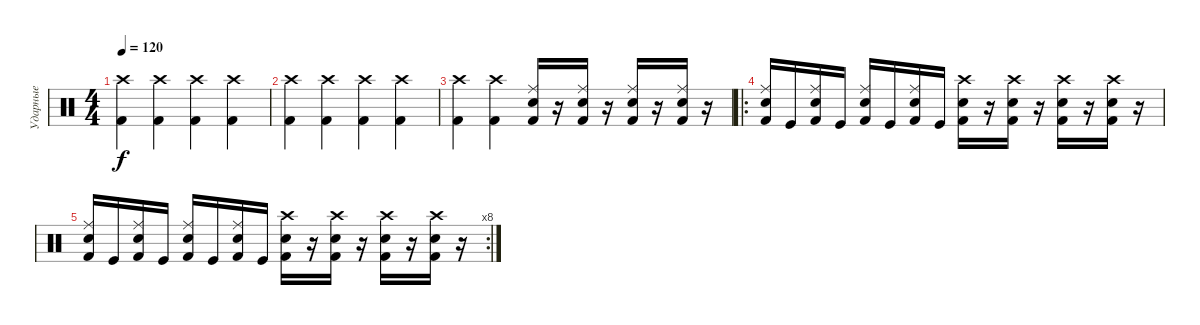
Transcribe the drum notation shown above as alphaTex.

\track ("Ударные" "Ударные") {instrument percussion}
\staff {score}
\articulation defaults
\ts (4 4)
\tempo 120
\clef neutral
\ks c
("Crash high (hit)" "Kick (hit) 2").4{dy f} ("Crash high (hit)" "Kick (hit) 2").4 ("Crash high (hit)" "Kick (hit) 2").4 ("Crash high (hit)" "Kick (hit) 2").4 |
("Crash high (hit)" "Kick (hit) 2").4 ("Crash high (hit)" "Kick (hit) 2").4 ("Crash high (hit)" "Kick (hit) 2").4 ("Crash high (hit)" "Kick (hit) 2").4 |
("Crash high (hit)" "Kick (hit) 2").4 ("Crash high (hit)" "Kick (hit) 2").4 ("Ride (middle)" "Electric Snare (hit)" "Kick (hit) 2").16 r.16 ("Ride (middle)" "Electric Snare (hit)" "Kick (hit) 2").16 r.16 ("Ride (middle)" "Electric Snare (hit)" "Kick (hit) 2").16 r.16 ("Ride (middle)" "Electric Snare (hit)" "Kick (hit) 2").16 r.16 |
\ro
("Ride (middle)" "Electric Snare (hit)" "Kick (hit) 2").16 "Kick (hit)".16 ("Ride (middle)" "Electric Snare (hit)" "Kick (hit) 2").16 "Kick (hit)".16 ("Ride (middle)" "Electric Snare (hit)" "Kick (hit) 2").16 "Kick (hit)".16 ("Ride (middle)" "Electric Snare (hit)" "Kick (hit) 2").16 "Kick (hit)".16 ("Crash high (hit)" "Electric Snare (hit)" "Kick (hit) 2").16 r.16 ("Crash high (hit)" "Electric Snare (hit)" "Kick (hit) 2").16 r.16 ("Crash high (hit)" "Electric Snare (hit)" "Kick (hit) 2").16 r.16 ("Crash high (hit)" "Electric Snare (hit)" "Kick (hit) 2").16 r.16 |
\rc 8
("Ride (middle)" "Electric Snare (hit)" "Kick (hit) 2").16 "Kick (hit)".16 ("Ride (middle)" "Electric Snare (hit)" "Kick (hit) 2").16 "Kick (hit)".16 ("Ride (middle)" "Electric Snare (hit)" "Kick (hit) 2").16 "Kick (hit)".16 ("Ride (middle)" "Electric Snare (hit)" "Kick (hit) 2").16 "Kick (hit)".16 ("Crash high (hit)" "Electric Snare (hit)" "Kick (hit) 2").16 r.16 ("Crash high (hit)" "Electric Snare (hit)" "Kick (hit) 2").16 r.16 ("Crash high (hit)" "Electric Snare (hit)" "Kick (hit) 2").16 r.16 ("Crash high (hit)" "Electric Snare (hit)" "Kick (hit) 2").16 r.16
